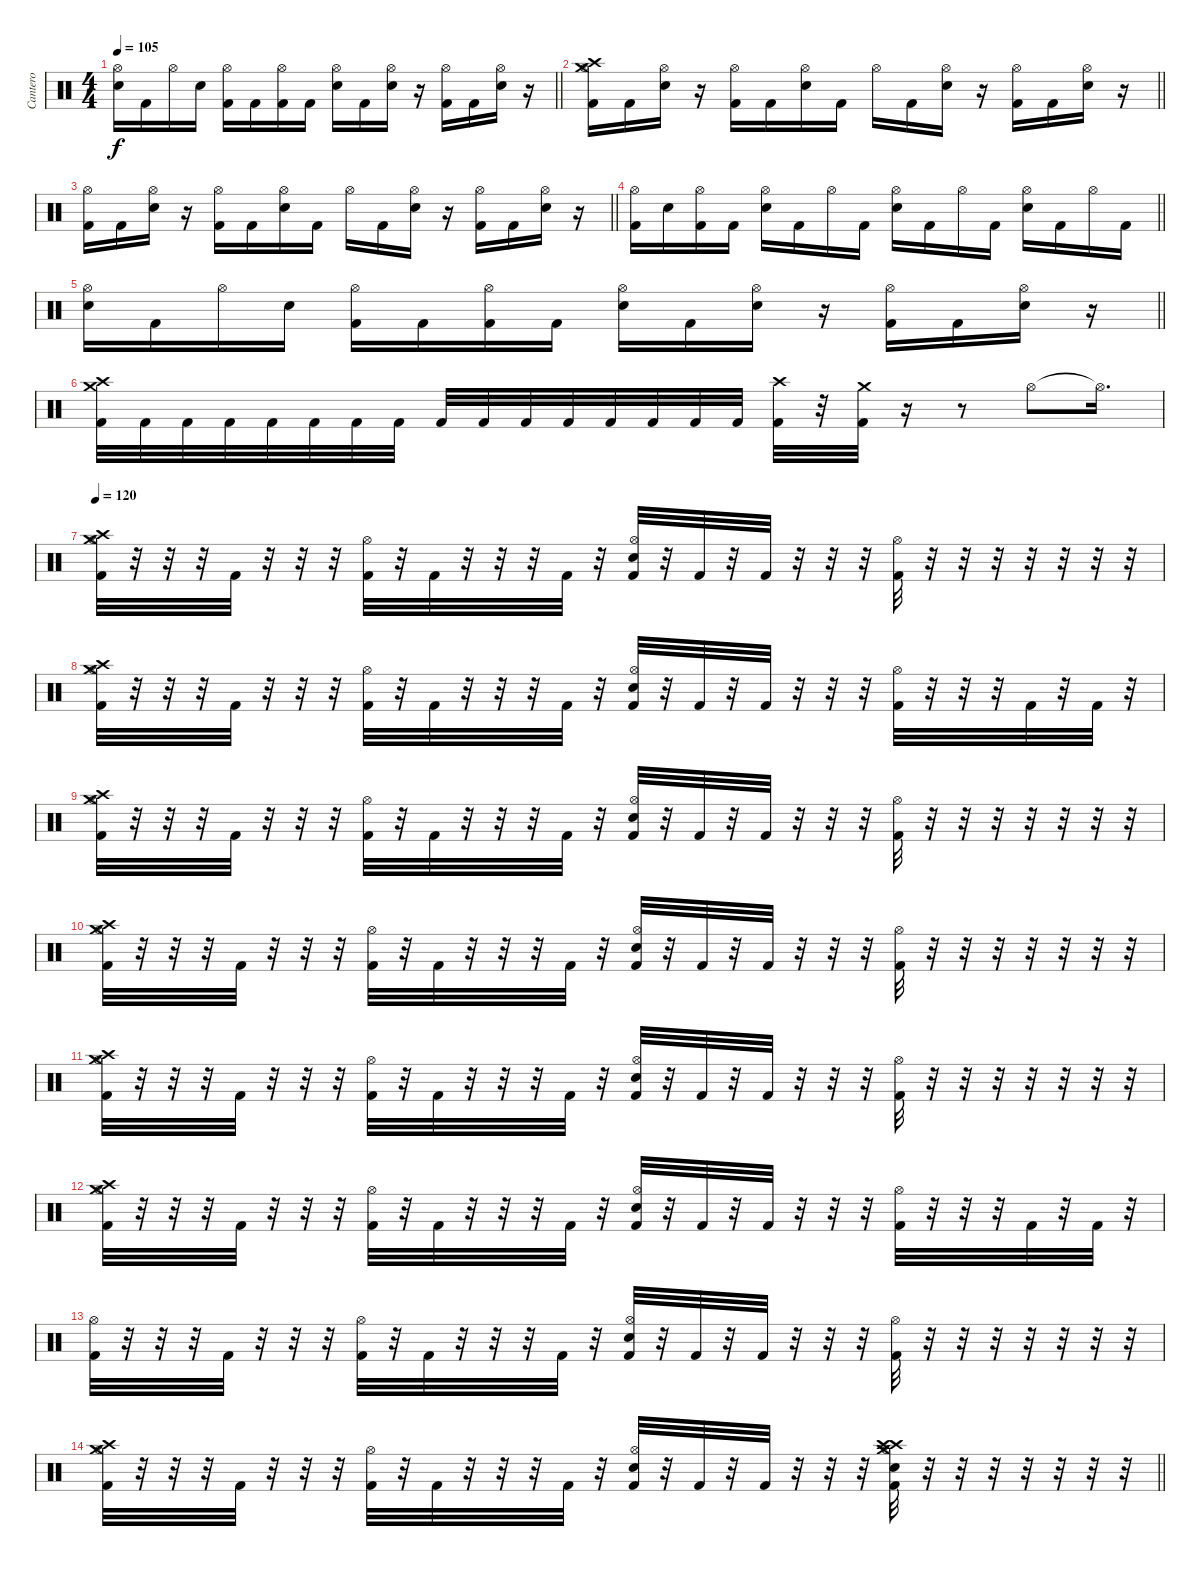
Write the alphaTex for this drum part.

\track ("Cantero" "Cantero") {instrument percussion}
\staff {score}
\articulation defaults
\ts (4 4)
\tempo 105
\clef neutral
\barLineRight lightlight
\ks c
("Electric Snare (hit)" "Hi-Hat (open)").16{dy f} "Kick (hit) 2".16 "Hi-Hat (open)".16 "Electric Snare (hit)".16 ("Kick (hit) 2" "Hi-Hat (open)").16 "Kick (hit) 2".16 ("Kick (hit) 2" "Hi-Hat (open)").16 "Kick (hit) 2".16 ("Electric Snare (hit)" "Hi-Hat (open)").16 "Kick (hit) 2".16 ("Electric Snare (hit)" "Hi-Hat (open)").16 r.16 ("Kick (hit) 2" "Hi-Hat (open)").16 "Kick (hit) 2".16 ("Electric Snare (hit)" "Hi-Hat (open)").16 r.16 |
\barLineRight lightlight
("Kick (hit) 2" "Crash high (hit)" "Hi-Hat (open)" "Crash medium (hit)").16 "Kick (hit) 2".16 ("Electric Snare (hit)" "Hi-Hat (open)").16 r.16 ("Kick (hit) 2" "Hi-Hat (open)").16 "Kick (hit) 2".16 ("Electric Snare (hit)" "Hi-Hat (open)").16 "Kick (hit) 2".16 "Hi-Hat (open)".16 "Kick (hit) 2".16 ("Electric Snare (hit)" "Hi-Hat (open)").16 r.16 ("Kick (hit) 2" "Hi-Hat (open)").16 "Kick (hit) 2".16 ("Electric Snare (hit)" "Hi-Hat (open)").16 r.16 |
\barLineRight lightlight
("Kick (hit) 2" "Hi-Hat (open)").16 "Kick (hit) 2".16 ("Electric Snare (hit)" "Hi-Hat (open)").16 r.16 ("Kick (hit) 2" "Hi-Hat (open)").16 "Kick (hit) 2".16 ("Electric Snare (hit)" "Hi-Hat (open)").16 "Kick (hit) 2".16 "Hi-Hat (open)".16 "Kick (hit) 2".16 ("Electric Snare (hit)" "Hi-Hat (open)").16 r.16 ("Kick (hit) 2" "Hi-Hat (open)").16 "Kick (hit) 2".16 ("Electric Snare (hit)" "Hi-Hat (open)").16 r.16 |
\barLineRight lightlight
("Kick (hit) 2" "Hi-Hat (open)").16 "Electric Snare (hit)".16 ("Kick (hit) 2" "Hi-Hat (open)").16 "Kick (hit) 2".16 ("Electric Snare (hit)" "Hi-Hat (open)").16 "Kick (hit) 2".16 "Hi-Hat (open)".16 "Kick (hit) 2".16 ("Electric Snare (hit)" "Hi-Hat (open)").16 "Kick (hit) 2".16 "Hi-Hat (open)".16 "Kick (hit) 2".16 ("Electric Snare (hit)" "Hi-Hat (open)").16 "Kick (hit) 2".16 "Hi-Hat (open)".16 "Kick (hit) 2".16 |
\barLineRight lightlight
("Electric Snare (hit)" "Hi-Hat (open)").16 "Kick (hit) 2".16 "Hi-Hat (open)".16 "Electric Snare (hit)".16 ("Kick (hit) 2" "Hi-Hat (open)").16 "Kick (hit) 2".16 ("Kick (hit) 2" "Hi-Hat (open)").16 "Kick (hit) 2".16 ("Electric Snare (hit)" "Hi-Hat (open)").16 "Kick (hit) 2".16 ("Electric Snare (hit)" "Hi-Hat (open)").16 r.16 ("Kick (hit) 2" "Hi-Hat (open)").16 "Kick (hit) 2".16 ("Electric Snare (hit)" "Hi-Hat (open)").16 r.16 |
("Kick (hit) 2" "Crash high (hit)" "Crash medium (hit)").32 "Kick (hit) 2".32 "Kick (hit) 2".32 "Kick (hit) 2".32 "Kick (hit) 2".32 "Kick (hit) 2".32 "Kick (hit) 2".32 "Kick (hit) 2".32 "Kick (hit) 2".32 "Kick (hit) 2".32 "Kick (hit) 2".32 "Kick (hit) 2".32 "Kick (hit) 2".32 "Kick (hit) 2".32 "Kick (hit) 2".32 "Kick (hit) 2".32 ("Kick (hit) 2" "Crash high (hit)").32 r.32 ("Kick (hit) 2" "Crash medium (hit)").32 r.16 r.8 "Hi-Hat (open)".8 "Hi-Hat (open)"{t}.16{d} |
\tempo 120
("Crash high (hit)" "Crash medium (hit)" "Kick (hit) 2" "Hi-Hat (open)").32 r.32 r.32 r.32 "Kick (hit) 2".32 r.32 r.32 r.32 ("Kick (hit) 2" "Hi-Hat (open)").32 r.32 "Kick (hit) 2".32 r.32 r.32 r.32 "Kick (hit) 2".32 r.32 ("Kick (hit) 2" "Electric Snare (hit)" "Hi-Hat (open)").32 r.32 "Kick (hit) 2".32 r.32 "Kick (hit) 2".32 r.32 r.32 r.32 ("Kick (hit) 2" "Hi-Hat (open)").32 r.32 r.32 r.32 r.32 r.32 r.32 r.32 |
("Crash high (hit)" "Crash medium (hit)" "Kick (hit) 2" "Hi-Hat (open)").32 r.32 r.32 r.32 "Kick (hit) 2".32 r.32 r.32 r.32 ("Kick (hit) 2" "Hi-Hat (open)").32 r.32 "Kick (hit) 2".32 r.32 r.32 r.32 "Kick (hit) 2".32 r.32 ("Kick (hit) 2" "Electric Snare (hit)" "Hi-Hat (open)").32 r.32 "Kick (hit) 2".32 r.32 "Kick (hit) 2".32 r.32 r.32 r.32 ("Kick (hit) 2" "Hi-Hat (open)").32 r.32 r.32 r.32 "Kick (hit) 2".32 r.32 "Kick (hit) 2".32 r.32 |
("Crash high (hit)" "Crash medium (hit)" "Kick (hit) 2" "Hi-Hat (open)").32 r.32 r.32 r.32 "Kick (hit) 2".32 r.32 r.32 r.32 ("Kick (hit) 2" "Hi-Hat (open)").32 r.32 "Kick (hit) 2".32 r.32 r.32 r.32 "Kick (hit) 2".32 r.32 ("Kick (hit) 2" "Electric Snare (hit)" "Hi-Hat (open)").32 r.32 "Kick (hit) 2".32 r.32 "Kick (hit) 2".32 r.32 r.32 r.32 ("Kick (hit) 2" "Hi-Hat (open)").32 r.32 r.32 r.32 r.32 r.32 r.32 r.32 |
("Crash high (hit)" "Crash medium (hit)" "Kick (hit) 2" "Hi-Hat (open)").32 r.32 r.32 r.32 "Kick (hit) 2".32 r.32 r.32 r.32 ("Kick (hit) 2" "Hi-Hat (open)").32 r.32 "Kick (hit) 2".32 r.32 r.32 r.32 "Kick (hit) 2".32 r.32 ("Kick (hit) 2" "Electric Snare (hit)" "Hi-Hat (open)").32 r.32 "Kick (hit) 2".32 r.32 "Kick (hit) 2".32 r.32 r.32 r.32 ("Kick (hit) 2" "Hi-Hat (open)").32 r.32 r.32 r.32 r.32 r.32 r.32 r.32 |
("Crash high (hit)" "Crash medium (hit)" "Kick (hit) 2" "Hi-Hat (open)").32 r.32 r.32 r.32 "Kick (hit) 2".32 r.32 r.32 r.32 ("Kick (hit) 2" "Hi-Hat (open)").32 r.32 "Kick (hit) 2".32 r.32 r.32 r.32 "Kick (hit) 2".32 r.32 ("Kick (hit) 2" "Electric Snare (hit)" "Hi-Hat (open)").32 r.32 "Kick (hit) 2".32 r.32 "Kick (hit) 2".32 r.32 r.32 r.32 ("Kick (hit) 2" "Hi-Hat (open)").32 r.32 r.32 r.32 r.32 r.32 r.32 r.32 |
("Crash high (hit)" "Crash medium (hit)" "Kick (hit) 2" "Hi-Hat (open)").32 r.32 r.32 r.32 "Kick (hit) 2".32 r.32 r.32 r.32 ("Kick (hit) 2" "Hi-Hat (open)").32 r.32 "Kick (hit) 2".32 r.32 r.32 r.32 "Kick (hit) 2".32 r.32 ("Kick (hit) 2" "Electric Snare (hit)" "Hi-Hat (open)").32 r.32 "Kick (hit) 2".32 r.32 "Kick (hit) 2".32 r.32 r.32 r.32 ("Kick (hit) 2" "Hi-Hat (open)").32 r.32 r.32 r.32 "Kick (hit) 2".32 r.32 "Kick (hit) 2".32 r.32 |
("Kick (hit) 2" "Hi-Hat (open)").32 r.32 r.32 r.32 "Kick (hit) 2".32 r.32 r.32 r.32 ("Kick (hit) 2" "Hi-Hat (open)").32 r.32 "Kick (hit) 2".32 r.32 r.32 r.32 "Kick (hit) 2".32 r.32 ("Kick (hit) 2" "Electric Snare (hit)" "Hi-Hat (open)").32 r.32 "Kick (hit) 2".32 r.32 "Kick (hit) 2".32 r.32 r.32 r.32 ("Kick (hit) 2" "Hi-Hat (open)").32 r.32 r.32 r.32 r.32 r.32 r.32 r.32 |
\barLineRight lightlight
("Crash high (hit)" "Crash medium (hit)" "Kick (hit) 2" "Hi-Hat (open)").32 r.32 r.32 r.32 "Kick (hit) 2".32 r.32 r.32 r.32 ("Kick (hit) 2" "Hi-Hat (open)").32 r.32 "Kick (hit) 2".32 r.32 r.32 r.32 "Kick (hit) 2".32 r.32 ("Kick (hit) 2" "Electric Snare (hit)" "Hi-Hat (open)").32 r.32 "Kick (hit) 2".32 r.32 "Kick (hit) 2".32 r.32 r.32 r.32 ("Kick (hit) 2" "Electric Snare (hit)" "Crash medium (hit)" "Crash high (hit)" "Crash high (hit)" "Hi-Hat (open)").32 r.32 r.32 r.32 r.32 r.32 r.32 r.32
